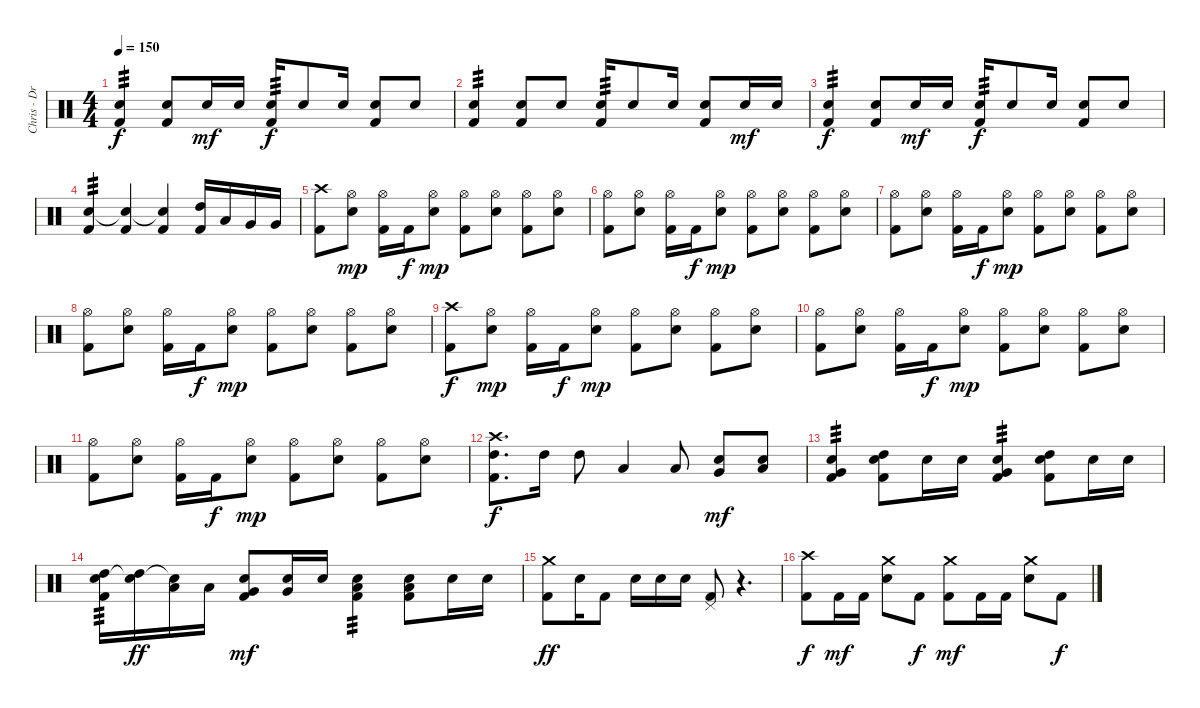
\track ("Chris - Drums" "Chris - Dr") {instrument percussion}
\staff {score}
\articulation defaults
\ts (4 4)
\tempo 150
\clef neutral
\ks c
("Electric Snare (hit)" "Kick (hit) 2").4{tp 3 dy f} ("Electric Snare (hit)" "Kick (hit) 2").8 "Electric Snare (hit)".16{dy mf} "Electric Snare (hit)".16 ("Electric Snare (hit)" "Kick (hit) 2").16{tp 3 dy f} "Electric Snare (hit)".8 "Electric Snare (hit)".16 ("Electric Snare (hit)" "Kick (hit) 2").8 "Electric Snare (hit)".8 |
("Electric Snare (hit)" "Kick (hit) 2").4{tp 3} ("Electric Snare (hit)" "Kick (hit) 2").8 "Electric Snare (hit)".8 ("Electric Snare (hit)" "Kick (hit) 2").16{tp 3} "Electric Snare (hit)".8 "Electric Snare (hit)".16 ("Electric Snare (hit)" "Kick (hit) 2").8 "Electric Snare (hit)".16{dy mf} "Electric Snare (hit)".16 |
("Electric Snare (hit)" "Kick (hit) 2").4{tp 3 dy f} ("Electric Snare (hit)" "Kick (hit) 2").8 "Electric Snare (hit)".16{dy mf} "Electric Snare (hit)".16 ("Electric Snare (hit)" "Kick (hit) 2").16{tp 3 dy f} "Electric Snare (hit)".8 "Electric Snare (hit)".16 ("Electric Snare (hit)" "Kick (hit) 2").8 "Electric Snare (hit)".8 |
("Electric Snare (hit)" "Kick (hit) 2").4{tp 3} ("Electric Snare (hit)"{t} "Kick (hit) 2").4 ("Electric Snare (hit)"{t} "Kick (hit) 2").4 ("High Tom (hit)" "Kick (hit) 2").16 "Low Tom (hit)".16 "Very Low Tom (hit)".16 "Very Low Tom (hit)".16 |
("Crash high (hit)" "Kick (hit) 2").8 ("Hi-Hat (open)" "Electric Snare (hit)").8{dy mp} ("Hi-Hat (open)" "Kick (hit) 2").16 "Kick (hit) 2".16{dy f} ("Hi-Hat (open)" "Electric Snare (hit)").8{dy mp} ("Hi-Hat (open)" "Kick (hit) 2").8 ("Hi-Hat (open)" "Electric Snare (hit)").8 ("Hi-Hat (open)" "Kick (hit) 2").8 ("Hi-Hat (open)" "Electric Snare (hit)").8 |
("Hi-Hat (open)" "Kick (hit) 2").8 ("Hi-Hat (open)" "Electric Snare (hit)").8 ("Hi-Hat (open)" "Kick (hit) 2").16 "Kick (hit) 2".16{dy f} ("Hi-Hat (open)" "Electric Snare (hit)").8{dy mp} ("Hi-Hat (open)" "Kick (hit) 2").8 ("Hi-Hat (open)" "Electric Snare (hit)").8 ("Hi-Hat (open)" "Kick (hit) 2").8 ("Hi-Hat (open)" "Electric Snare (hit)").8 |
("Hi-Hat (open)" "Kick (hit) 2").8 ("Hi-Hat (open)" "Electric Snare (hit)").8 ("Hi-Hat (open)" "Kick (hit) 2").16 "Kick (hit) 2".16{dy f} ("Hi-Hat (open)" "Electric Snare (hit)").8{dy mp} ("Hi-Hat (open)" "Kick (hit) 2").8 ("Hi-Hat (open)" "Electric Snare (hit)").8 ("Hi-Hat (open)" "Kick (hit) 2").8 ("Hi-Hat (open)" "Electric Snare (hit)").8 |
("Hi-Hat (open)" "Kick (hit) 2").8 ("Hi-Hat (open)" "Electric Snare (hit)").8 ("Hi-Hat (open)" "Kick (hit) 2").16 "Kick (hit) 2".16{dy f} ("Hi-Hat (open)" "Electric Snare (hit)").8{dy mp} ("Hi-Hat (open)" "Kick (hit) 2").8 ("Hi-Hat (open)" "Electric Snare (hit)").8 ("Hi-Hat (open)" "Kick (hit) 2").8 ("Hi-Hat (open)" "Electric Snare (hit)").8 |
("Crash high (hit)" "Kick (hit) 2").8{dy f} ("Hi-Hat (open)" "Electric Snare (hit)").8{dy mp} ("Hi-Hat (open)" "Kick (hit) 2").16 "Kick (hit) 2".16{dy f} ("Hi-Hat (open)" "Electric Snare (hit)").8{dy mp} ("Hi-Hat (open)" "Kick (hit) 2").8 ("Hi-Hat (open)" "Electric Snare (hit)").8 ("Hi-Hat (open)" "Kick (hit) 2").8 ("Hi-Hat (open)" "Electric Snare (hit)").8 |
("Hi-Hat (open)" "Kick (hit) 2").8 ("Hi-Hat (open)" "Electric Snare (hit)").8 ("Hi-Hat (open)" "Kick (hit) 2").16 "Kick (hit) 2".16{dy f} ("Hi-Hat (open)" "Electric Snare (hit)").8{dy mp} ("Hi-Hat (open)" "Kick (hit) 2").8 ("Hi-Hat (open)" "Electric Snare (hit)").8 ("Hi-Hat (open)" "Kick (hit) 2").8 ("Hi-Hat (open)" "Electric Snare (hit)").8 |
("Hi-Hat (open)" "Kick (hit) 2").8 ("Hi-Hat (open)" "Electric Snare (hit)").8 ("Hi-Hat (open)" "Kick (hit) 2").16 "Kick (hit) 2".16{dy f} ("Hi-Hat (open)" "Electric Snare (hit)").8{dy mp} ("Hi-Hat (open)" "Kick (hit) 2").8 ("Hi-Hat (open)" "Electric Snare (hit)").8 ("Hi-Hat (open)" "Kick (hit) 2").8 ("Hi-Hat (open)" "Electric Snare (hit)").8 |
("Crash high (hit)" "High Tom (hit)" "Kick (hit) 2").8{d dy f} "High Tom (hit)".16 "High Tom (hit)".8 "Low Tom (hit)".4 "Low Tom (hit)".8 ("Very Low Tom (hit)" "Electric Snare (hit)").8{dy mf} ("Low Floor Tom (hit)" "Electric Snare (hit)").8 |
("Very Low Tom (hit)" "Electric Snare (hit)" "Kick (hit) 2").4{tp 3} ("High Tom (hit)" "Electric Snare (hit)" "Kick (hit) 2").8 "Electric Snare (hit)".16 "Electric Snare (hit)".16 ("Very Low Tom (hit)" "Electric Snare (hit)" "Kick (hit) 2").4{tp 3} ("High Tom (hit)" "Electric Snare (hit)" "Kick (hit) 2").8 "Electric Snare (hit)".16 "Electric Snare (hit)".16 |
("High Tom (hit)" "Electric Snare (hit)" "Kick (hit) 2").16{tp 3} ("High Tom (hit)" "Snare (hit)"{t}).16{dy ff} ("Low Tom (hit)" "Snare (hit)"{t}).16 "Low Tom (hit)".16 ("Very Low Tom (hit)" "Electric Snare (hit)" "Kick (hit) 2").8{dy mf} ("Very Low Tom (hit)" "Electric Snare (hit)").16 "Electric Snare (hit)".16 ("Low Floor Tom (hit)" "Electric Snare (hit)" "Kick (hit) 2").4{tp 3} ("Low Floor Tom (hit)" "Electric Snare (hit)" "Kick (hit) 2").8 "Electric Snare (hit)".16 "Electric Snare (hit)".16 |
("Crash medium (hit)" "Kick (hit) 2").8{dy ff} "Electric Snare (hit)".16 "Kick (hit) 2".8 "Electric Snare (hit)".16 "Electric Snare (hit)".16 "Electric Snare (hit)".16 ("Pedal Hi-Hat (hit)" "Kick (hit) 2").8 r.4{d} |
("Crash high (hit)" "Kick (hit) 2").8{dy f} "Kick (hit) 2".16{dy mf} "Kick (hit) 2".16 ("Crash medium (hit)" "Electric Snare (hit)").8 "Kick (hit) 2".8{dy f} ("Crash medium (hit)" "Kick (hit) 2").8{dy mf} "Kick (hit) 2".16 "Kick (hit) 2".16 ("Crash medium (hit)" "Electric Snare (hit)").8 "Kick (hit) 2".8{dy f}
